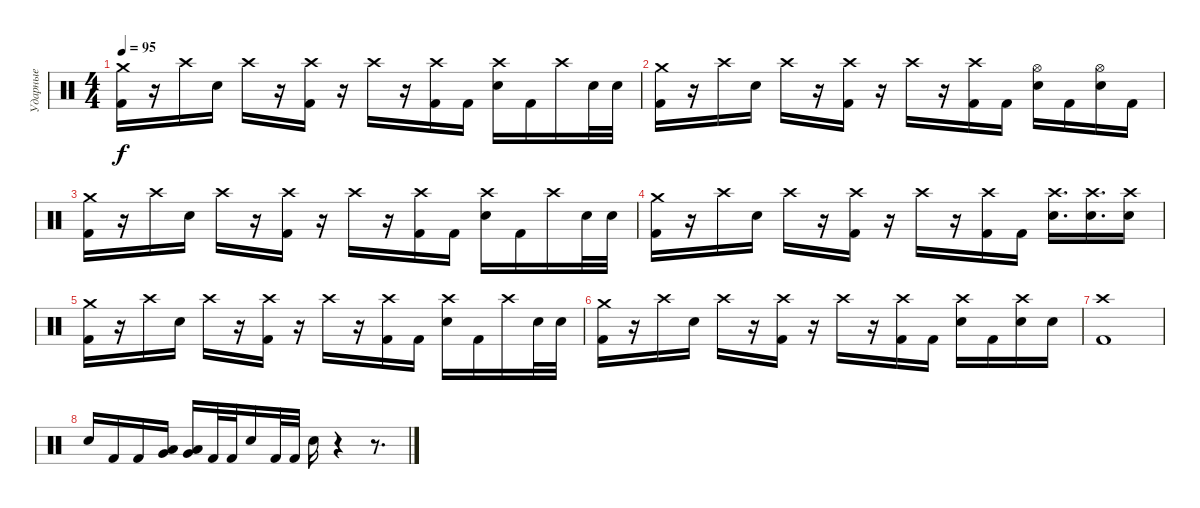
\track ("Ударные" "Ударные") {instrument percussion}
\staff {score}
\articulation defaults
\ts (4 4)
\tempo 95
\clef neutral
\ks c
("Crash medium (hit)" "Kick (hit) 2").16{dy f} r.16 "Crash high (hit)".16 "Electric Snare (hit)".16 "Crash high (hit)".16 r.16 ("Crash high (hit)" "Kick (hit) 2").16 r.16 "Crash high (hit)".16 r.16 ("Crash high (hit)" "Kick (hit) 2").16 "Kick (hit) 2".16 ("Crash high (hit)" "Electric Snare (hit)").16 "Kick (hit) 2".16 "Crash high (hit)".16 "Electric Snare (hit)".32 "Electric Snare (hit)".32 |
("Crash medium (hit)" "Kick (hit) 2").16 r.16 "Crash high (hit)".16 "Electric Snare (hit)".16 "Crash high (hit)".16 r.16 ("Crash high (hit)" "Kick (hit) 2").16 r.16 "Crash high (hit)".16 r.16 ("Crash high (hit)" "Kick (hit) 2").16 "Kick (hit) 2".16 ("Hi-Hat (open)" "Electric Snare (hit)").16 "Kick (hit) 2".16 ("Hi-Hat (open)" "Electric Snare (hit)").16 "Kick (hit) 2".16 |
("Crash medium (hit)" "Kick (hit) 2").16 r.16 "Crash high (hit)".16 "Electric Snare (hit)".16 "Crash high (hit)".16 r.16 ("Crash high (hit)" "Kick (hit) 2").16 r.16 "Crash high (hit)".16 r.16 ("Crash high (hit)" "Kick (hit) 2").16 "Kick (hit) 2".16 ("Crash high (hit)" "Electric Snare (hit)").16 "Kick (hit) 2".16 "Crash high (hit)".16 "Electric Snare (hit)".32 "Electric Snare (hit)".32 |
("Crash medium (hit)" "Kick (hit) 2").16 r.16 "Crash high (hit)".16 "Electric Snare (hit)".16 "Crash high (hit)".16 r.16 ("Crash high (hit)" "Kick (hit) 2").16 r.16 "Crash high (hit)".16 r.16 ("Crash high (hit)" "Kick (hit) 2").16 "Kick (hit) 2".16 ("Crash high (hit)" "Electric Snare (hit)").16{d} ("Crash high (hit)" "Electric Snare (hit)").16{d} ("Crash high (hit)" "Electric Snare (hit)").16 |
("Crash medium (hit)" "Kick (hit) 2").16 r.16 "Crash high (hit)".16 "Electric Snare (hit)".16 "Crash high (hit)".16 r.16 ("Crash high (hit)" "Kick (hit) 2").16 r.16 "Crash high (hit)".16 r.16 ("Crash high (hit)" "Kick (hit) 2").16 "Kick (hit) 2".16 ("Crash high (hit)" "Electric Snare (hit)").16 "Kick (hit) 2".16 "Crash high (hit)".16 "Electric Snare (hit)".32 "Electric Snare (hit)".32 |
("Crash medium (hit)" "Kick (hit) 2").16 r.16 "Crash high (hit)".16 "Electric Snare (hit)".16 "Crash high (hit)".16 r.16 ("Crash high (hit)" "Kick (hit) 2").16 r.16 "Crash high (hit)".16 r.16 ("Crash high (hit)" "Kick (hit) 2").16 "Kick (hit) 2".16 ("Crash high (hit)" "Electric Snare (hit)").16 "Kick (hit) 2".16 ("Crash high (hit)" "Electric Snare (hit)").16 "Electric Snare (hit)".16 |
("Crash high (hit)" "Kick (hit) 2").1 |
"Electric Snare (hit)".16 "Kick (hit) 2".16 "Kick (hit) 2".16 ("Low Floor Tom (hit)" "Very Low Tom (hit)").16 ("Low Floor Tom (hit)" "Very Low Tom (hit)").16 "Kick (hit) 2".32 "Kick (hit) 2".32 "Electric Snare (hit)".16 "Kick (hit) 2".32 "Kick (hit) 2".32 "Electric Snare (hit)".16 r.4 r.8{d}
